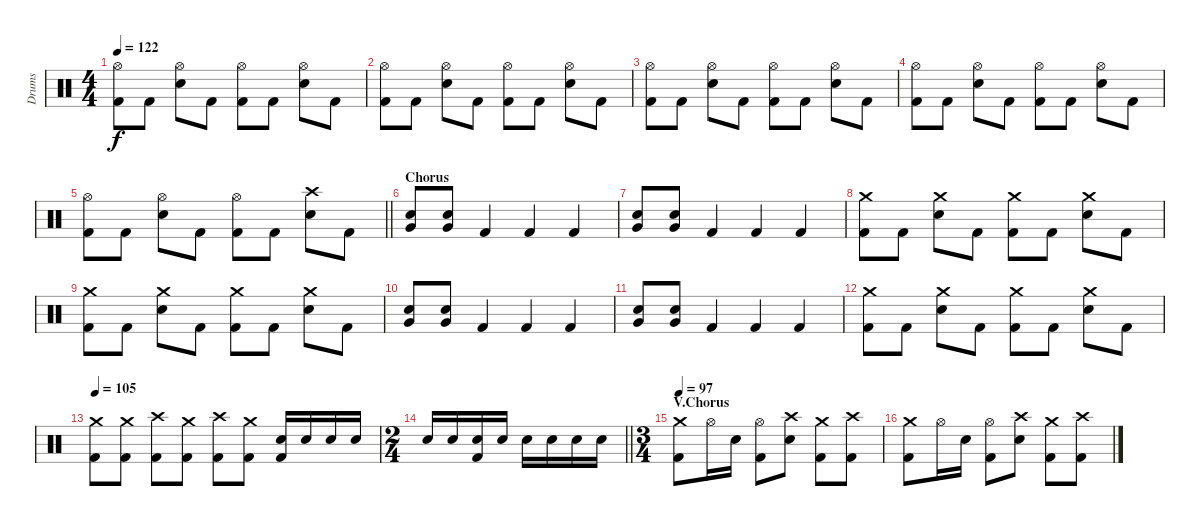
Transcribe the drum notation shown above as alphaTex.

\track ("Drums" "Drums") {instrument percussion}
\staff {score}
\articulation defaults
\ts (4 4)
\tempo 122
\clef neutral
\ks c
("Hi-Hat (open)" "Kick (hit) 2").8{dy f} "Kick (hit) 2".8 ("Hi-Hat (open)" "Electric Snare (hit)").8 "Kick (hit) 2".8 ("Hi-Hat (open)" "Kick (hit) 2").8 "Kick (hit) 2".8 ("Hi-Hat (open)" "Electric Snare (hit)").8 "Kick (hit) 2".8 |
("Hi-Hat (open)" "Kick (hit) 2").8 "Kick (hit) 2".8 ("Hi-Hat (open)" "Electric Snare (hit)").8 "Kick (hit) 2".8 ("Hi-Hat (open)" "Kick (hit) 2").8 "Kick (hit) 2".8 ("Hi-Hat (open)" "Electric Snare (hit)").8 "Kick (hit) 2".8 |
("Hi-Hat (open)" "Kick (hit) 2").8 "Kick (hit) 2".8 ("Hi-Hat (open)" "Electric Snare (hit)").8 "Kick (hit) 2".8 ("Hi-Hat (open)" "Kick (hit) 2").8 "Kick (hit) 2".8 ("Hi-Hat (open)" "Electric Snare (hit)").8 "Kick (hit) 2".8 |
("Hi-Hat (open)" "Kick (hit) 2").8 "Kick (hit) 2".8 ("Hi-Hat (open)" "Electric Snare (hit)").8 "Kick (hit) 2".8 ("Hi-Hat (open)" "Kick (hit) 2").8 "Kick (hit) 2".8 ("Hi-Hat (open)" "Electric Snare (hit)").8 "Kick (hit) 2".8 |
\barLineRight lightlight
("Hi-Hat (open)" "Kick (hit) 2").8 "Kick (hit) 2".8 ("Hi-Hat (open)" "Electric Snare (hit)").8 "Kick (hit) 2".8 ("Hi-Hat (open)" "Kick (hit) 2").8 "Kick (hit) 2".8 ("Crash high (hit)" "Electric Snare (hit)").8 "Kick (hit) 2".8 |
\section ("" "Chorus")
("Very Low Tom (hit)" "Electric Snare (hit)").8 ("Very Low Tom (hit)" "Electric Snare (hit)").8 "Kick (hit) 2".4 "Kick (hit) 2".4 "Kick (hit) 2".4 |
("Very Low Tom (hit)" "Electric Snare (hit)").8 ("Very Low Tom (hit)" "Electric Snare (hit)").8 "Kick (hit) 2".4 "Kick (hit) 2".4 "Kick (hit) 2".4 |
("Crash medium (hit)" "Kick (hit) 2").8 "Kick (hit) 2".8 ("Crash medium (hit)" "Electric Snare (hit)").8 "Kick (hit) 2".8 ("Crash medium (hit)" "Kick (hit) 2").8 "Kick (hit) 2".8 ("Crash medium (hit)" "Electric Snare (hit)").8 "Kick (hit) 2".8 |
("Crash medium (hit)" "Kick (hit) 2").8 "Kick (hit) 2".8 ("Crash medium (hit)" "Electric Snare (hit)").8 "Kick (hit) 2".8 ("Crash medium (hit)" "Kick (hit) 2").8 "Kick (hit) 2".8 ("Crash medium (hit)" "Electric Snare (hit)").8 "Kick (hit) 2".8 |
("Very Low Tom (hit)" "Electric Snare (hit)").8 ("Very Low Tom (hit)" "Electric Snare (hit)").8 "Kick (hit) 2".4 "Kick (hit) 2".4 "Kick (hit) 2".4 |
("Very Low Tom (hit)" "Electric Snare (hit)").8 ("Very Low Tom (hit)" "Electric Snare (hit)").8 "Kick (hit) 2".4 "Kick (hit) 2".4 "Kick (hit) 2".4 |
("Crash medium (hit)" "Kick (hit) 2").8 "Kick (hit) 2".8 ("Crash medium (hit)" "Electric Snare (hit)").8 "Kick (hit) 2".8 ("Crash medium (hit)" "Kick (hit) 2").8 "Kick (hit) 2".8 ("Crash medium (hit)" "Electric Snare (hit)").8 "Kick (hit) 2".8 |
\tempo 105
("Crash medium (hit)" "Kick (hit) 2").8 ("Crash medium (hit)" "Kick (hit) 2").8 ("Crash high (hit)" "Kick (hit) 2").8 ("Crash medium (hit)" "Kick (hit) 2").8 ("Crash high (hit)" "Kick (hit) 2").8 ("Crash medium (hit)" "Kick (hit) 2").8 ("Electric Snare (hit)" "Kick (hit) 2").16 "Electric Snare (hit)".16 "Electric Snare (hit)".16 "Electric Snare (hit)".16 |
\ts (2 4)
\barLineRight lightlight "Electric Snare (hit)".16 "Electric Snare (hit)".16
("Electric Snare (hit)" "Kick (hit) 2").16 "Electric Snare (hit)".16 "Electric Snare (hit)".16 "Electric Snare (hit)".16 "Electric Snare (hit)".16 "Electric Snare (hit)".16 |
\ts (3 4)
\section ("" "V.Chorus")
\tempo 97
("Crash medium (hit)" "Kick (hit) 2").8 "Hi-Hat (open)".16 "Electric Snare (hit)".16 ("Hi-Hat (open)" "Kick (hit) 2").8 ("Crash high (hit)" "Electric Snare (hit)").8 ("Crash medium (hit)" "Kick (hit) 2").8 ("Crash high (hit)" "Kick (hit) 2").8 |
("Crash medium (hit)" "Kick (hit) 2").8 "Hi-Hat (open)".16 "Electric Snare (hit)".16 ("Hi-Hat (open)" "Kick (hit) 2").8 ("Crash high (hit)" "Electric Snare (hit)").8 ("Crash medium (hit)" "Kick (hit) 2").8 ("Crash high (hit)" "Kick (hit) 2").8
